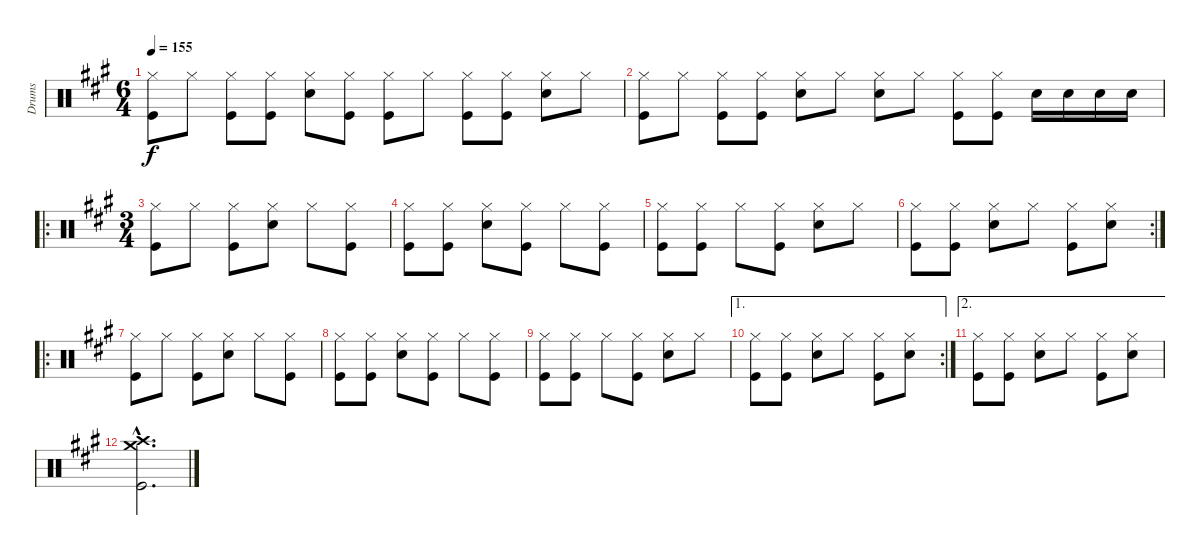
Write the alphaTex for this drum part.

\track ("Drums" "Drums") {instrument percussion}
\staff {score}
\articulation defaults
\ts (6 4)
\tempo 155
\clef neutral
\ks a
("Hi-Hat (closed)" "Kick (hit)").8{dy f} "Hi-Hat (closed)".8 ("Hi-Hat (closed)" "Kick (hit)").8 ("Hi-Hat (closed)" "Kick (hit)").8 ("Hi-Hat (closed)" "Snare (hit) 2").8 ("Hi-Hat (closed)" "Kick (hit)").8 ("Hi-Hat (closed)" "Kick (hit)").8 "Hi-Hat (closed)".8 ("Hi-Hat (closed)" "Kick (hit)").8 ("Hi-Hat (closed)" "Kick (hit)").8 ("Hi-Hat (closed)" "Snare (hit) 2").8 "Hi-Hat (closed)".8 |
("Hi-Hat (closed)" "Kick (hit)").8 "Hi-Hat (closed)".8 ("Hi-Hat (closed)" "Kick (hit)").8 ("Hi-Hat (closed)" "Kick (hit)").8 ("Hi-Hat (closed)" "Snare (hit) 2").8 "Hi-Hat (closed)".8 ("Hi-Hat (closed)" "Snare (hit) 2").8 "Hi-Hat (closed)".8 ("Hi-Hat (closed)" "Kick (hit)").8 ("Hi-Hat (closed)" "Kick (hit)").8 "Snare (hit) 2".16 "Snare (hit) 2".16 "Snare (hit) 2".16 "Snare (hit) 2".16 |
\ro
\ts (3 4)
("Hi-Hat (closed)" "Kick (hit)").8 "Hi-Hat (closed)".8 ("Hi-Hat (closed)" "Kick (hit)").8 ("Hi-Hat (closed)" "Snare (hit) 2").8 "Hi-Hat (closed)".8 ("Hi-Hat (closed)" "Kick (hit)").8 |
("Hi-Hat (closed)" "Kick (hit)").8 ("Hi-Hat (closed)" "Kick (hit)").8 ("Hi-Hat (closed)" "Snare (hit) 2").8 ("Hi-Hat (closed)" "Kick (hit)").8 "Hi-Hat (closed)".8 ("Hi-Hat (closed)" "Kick (hit)").8 |
("Hi-Hat (closed)" "Kick (hit)").8 ("Hi-Hat (closed)" "Kick (hit)").8 "Hi-Hat (closed)".8 ("Hi-Hat (closed)" "Kick (hit)").8 ("Hi-Hat (closed)" "Snare (hit) 2").8 "Hi-Hat (closed)".8 |
\rc 2
("Hi-Hat (closed)" "Kick (hit)").8 ("Hi-Hat (closed)" "Kick (hit)").8 ("Hi-Hat (closed)" "Snare (hit) 2").8 "Hi-Hat (closed)".8 ("Hi-Hat (closed)" "Kick (hit)").8 ("Hi-Hat (closed)" "Snare (hit) 2").8 |
\ro
("Hi-Hat (closed)" "Kick (hit)").8 "Hi-Hat (closed)".8 ("Hi-Hat (closed)" "Kick (hit)").8 ("Hi-Hat (closed)" "Snare (hit) 2").8 "Hi-Hat (closed)".8 ("Hi-Hat (closed)" "Kick (hit)").8 |
("Hi-Hat (closed)" "Kick (hit)").8 ("Hi-Hat (closed)" "Kick (hit)").8 ("Hi-Hat (closed)" "Snare (hit) 2").8 ("Hi-Hat (closed)" "Kick (hit)").8 "Hi-Hat (closed)".8 ("Hi-Hat (closed)" "Kick (hit)").8 |
("Hi-Hat (closed)" "Kick (hit)").8 ("Hi-Hat (closed)" "Kick (hit)").8 "Hi-Hat (closed)".8 ("Hi-Hat (closed)" "Kick (hit)").8 ("Hi-Hat (closed)" "Snare (hit) 2").8 "Hi-Hat (closed)".8 |
\ae 1
\rc 2
("Hi-Hat (closed)" "Kick (hit)").8 ("Hi-Hat (closed)" "Kick (hit)").8 ("Hi-Hat (closed)" "Snare (hit) 2").8 "Hi-Hat (closed)".8 ("Hi-Hat (closed)" "Kick (hit)").8 ("Hi-Hat (closed)" "Snare (hit) 2").8 |
\ae 2
("Hi-Hat (closed)" "Kick (hit)").8 ("Hi-Hat (closed)" "Kick (hit)").8 ("Hi-Hat (closed)" "Snare (hit) 2").8 "Hi-Hat (closed)".8 ("Hi-Hat (closed)" "Kick (hit)").8 ("Hi-Hat (closed)" "Snare (hit) 2").8 |
("Crash high (hit)"{hac} "Kick (hit)"{hac} "Crash medium (hit)"{hac}).2{d}
